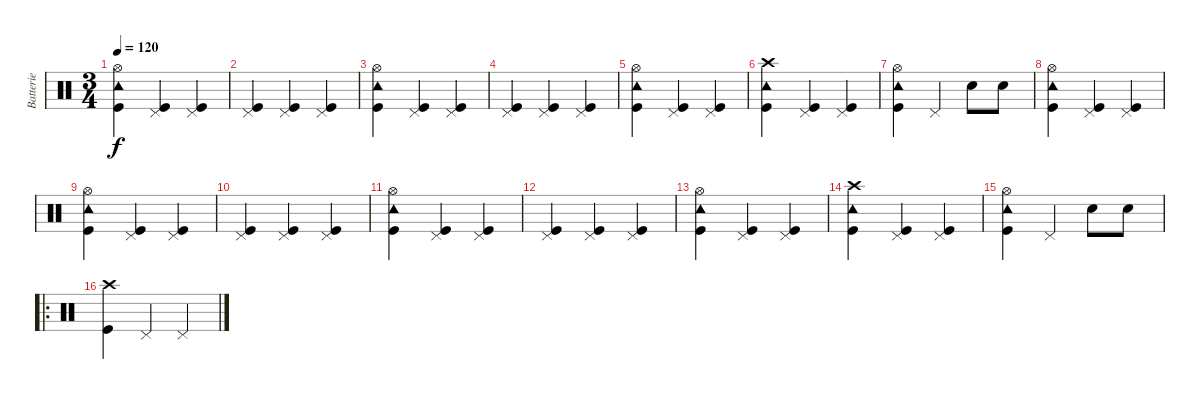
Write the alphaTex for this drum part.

\track ("Batterie" "Batterie") {instrument percussion}
\staff {score}
\articulation defaults
\ts (3 4)
\tempo 120
\clef neutral
\ks c
("Hi-Hat (open)" "Tambourine (hit)" "Kick (hit)").4{dy f} ("Pedal Hi-Hat (hit)" "Kick (hit)").4 ("Pedal Hi-Hat (hit)" "Kick (hit)").4 |
("Pedal Hi-Hat (hit)" "Kick (hit)").4 ("Pedal Hi-Hat (hit)" "Kick (hit)").4 ("Pedal Hi-Hat (hit)" "Kick (hit)").4 |
("Hi-Hat (open)" "Tambourine (hit)" "Kick (hit)").4 ("Pedal Hi-Hat (hit)" "Kick (hit)").4 ("Pedal Hi-Hat (hit)" "Kick (hit)").4 |
("Pedal Hi-Hat (hit)" "Kick (hit)").4 ("Pedal Hi-Hat (hit)" "Kick (hit)").4 ("Pedal Hi-Hat (hit)" "Kick (hit)").4 |
("Hi-Hat (open)" "Tambourine (hit)" "Kick (hit)").4 ("Pedal Hi-Hat (hit)" "Kick (hit)").4 ("Pedal Hi-Hat (hit)" "Kick (hit)").4 |
("Crash high (hit)" "Tambourine (hit)" "Kick (hit)").4 ("Pedal Hi-Hat (hit)" "Kick (hit)").4 ("Pedal Hi-Hat (hit)" "Kick (hit)").4 |
("Hi-Hat (open)" "Tambourine (hit)" "Kick (hit)").4 "Pedal Hi-Hat (hit)".4 "Snare (hit) 2".8 "Snare (hit) 2".8 |
("Hi-Hat (open)" "Tambourine (hit)" "Kick (hit)").4 ("Pedal Hi-Hat (hit)" "Kick (hit)").4 ("Pedal Hi-Hat (hit)" "Kick (hit)").4 |
("Hi-Hat (open)" "Tambourine (hit)" "Kick (hit)").4 ("Pedal Hi-Hat (hit)" "Kick (hit)").4 ("Pedal Hi-Hat (hit)" "Kick (hit)").4 |
("Pedal Hi-Hat (hit)" "Kick (hit)").4 ("Pedal Hi-Hat (hit)" "Kick (hit)").4 ("Pedal Hi-Hat (hit)" "Kick (hit)").4 |
("Hi-Hat (open)" "Tambourine (hit)" "Kick (hit)").4 ("Pedal Hi-Hat (hit)" "Kick (hit)").4 ("Pedal Hi-Hat (hit)" "Kick (hit)").4 |
("Pedal Hi-Hat (hit)" "Kick (hit)").4 ("Pedal Hi-Hat (hit)" "Kick (hit)").4 ("Pedal Hi-Hat (hit)" "Kick (hit)").4 |
("Hi-Hat (open)" "Tambourine (hit)" "Kick (hit)").4 ("Pedal Hi-Hat (hit)" "Kick (hit)").4 ("Pedal Hi-Hat (hit)" "Kick (hit)").4 |
("Crash high (hit)" "Tambourine (hit)" "Kick (hit)").4 ("Pedal Hi-Hat (hit)" "Kick (hit)").4 ("Pedal Hi-Hat (hit)" "Kick (hit)").4 |
("Hi-Hat (open)" "Tambourine (hit)" "Kick (hit)").4 "Pedal Hi-Hat (hit)".4 "Snare (hit) 2".8 "Snare (hit) 2".8 |
\ro
("Crash high (hit)" "Kick (hit)").4 "Pedal Hi-Hat (hit)".4 "Pedal Hi-Hat (hit)".4
